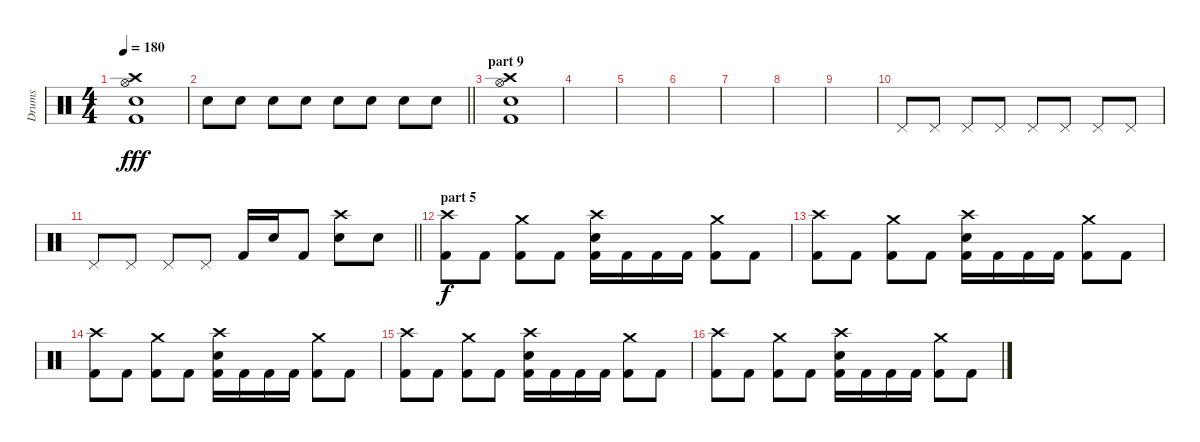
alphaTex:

\track ("Drums" "Drums") {instrument percussion}
\staff {score}
\articulation defaults
\ts (4 4)
\tempo 180
\clef neutral
\ks c
("Crash high (hit)" "Hi-Hat (open)" "Kick (hit) 2" "Snare (hit) 2").1{dy fff} |
\barLineRight lightlight "Snare (hit) 2".8 "Snare (hit) 2".8 "Snare (hit) 2".8 "Snare (hit) 2".8 "Snare (hit) 2".8 "Snare (hit) 2".8 "Snare (hit) 2".8 "Snare (hit) 2".8
|
\section ("" "part 9")
("Crash high (hit)" "Hi-Hat (open)" "Kick (hit) 2" "Snare (hit) 2").1 |
|
|
|
|
|
|
"Pedal Hi-Hat (hit)".8 "Pedal Hi-Hat (hit)".8 "Pedal Hi-Hat (hit)".8 "Pedal Hi-Hat (hit)".8 "Pedal Hi-Hat (hit)".8 "Pedal Hi-Hat (hit)".8 "Pedal Hi-Hat (hit)".8 "Pedal Hi-Hat (hit)".8 |
\barLineRight lightlight "Pedal Hi-Hat (hit)".8 "Pedal Hi-Hat (hit)".8 "Pedal Hi-Hat (hit)".8 "Pedal Hi-Hat (hit)".8 "Kick (hit) 2".16 "Snare (hit) 2".16 "Kick (hit) 2".8
("Crash high (hit)" "Snare (hit) 2").8 "Snare (hit) 2".8 |
\section ("" "part 5")
("Crash high (hit)" "Kick (hit) 2").8{dy f} "Kick (hit) 2".8 ("Crash medium (hit)" "Kick (hit) 2").8 "Kick (hit) 2".8 ("Crash high (hit)" "Electric Snare (hit)" "Kick (hit) 2").16 "Kick (hit) 2".16 "Kick (hit) 2".16 "Kick (hit) 2".16 ("Crash medium (hit)" "Kick (hit) 2").8 "Kick (hit) 2".8 |
("Crash high (hit)" "Kick (hit) 2").8 "Kick (hit) 2".8 ("Crash medium (hit)" "Kick (hit) 2").8 "Kick (hit) 2".8 ("Crash high (hit)" "Electric Snare (hit)" "Kick (hit) 2").16 "Kick (hit) 2".16 "Kick (hit) 2".16 "Kick (hit) 2".16 ("Crash medium (hit)" "Kick (hit) 2").8 "Kick (hit) 2".8 |
("Crash high (hit)" "Kick (hit) 2").8 "Kick (hit) 2".8 ("Crash medium (hit)" "Kick (hit) 2").8 "Kick (hit) 2".8 ("Crash high (hit)" "Electric Snare (hit)" "Kick (hit) 2").16 "Kick (hit) 2".16 "Kick (hit) 2".16 "Kick (hit) 2".16 ("Crash medium (hit)" "Kick (hit) 2").8 "Kick (hit) 2".8 |
("Crash high (hit)" "Kick (hit) 2").8 "Kick (hit) 2".8 ("Crash medium (hit)" "Kick (hit) 2").8 "Kick (hit) 2".8 ("Crash high (hit)" "Electric Snare (hit)" "Kick (hit) 2").16 "Kick (hit) 2".16 "Kick (hit) 2".16 "Kick (hit) 2".16 ("Crash medium (hit)" "Kick (hit) 2").8 "Kick (hit) 2".8 |
("Crash high (hit)" "Kick (hit) 2").8 "Kick (hit) 2".8 ("Crash medium (hit)" "Kick (hit) 2").8 "Kick (hit) 2".8 ("Crash high (hit)" "Electric Snare (hit)" "Kick (hit) 2").16 "Kick (hit) 2".16 "Kick (hit) 2".16 "Kick (hit) 2".16 ("Crash medium (hit)" "Kick (hit) 2").8 "Kick (hit) 2".8
